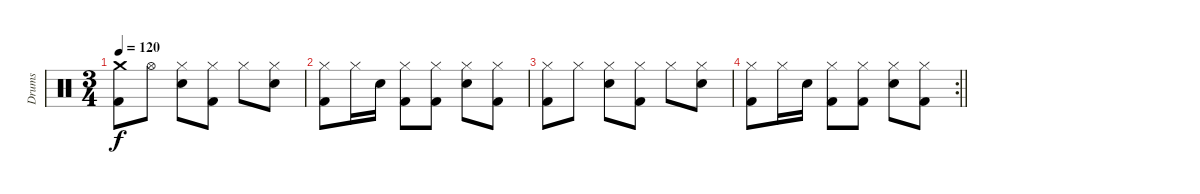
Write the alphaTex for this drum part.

\track ("Drums" "Drums") {instrument percussion}
\staff {score}
\articulation defaults
\ts (3 4)
\tempo 120
\clef neutral
\ks c
("Kick (hit) 2" "Crash medium (hit)").8{dy f} "Hi-Hat (open)".8 ("Electric Snare (hit)" "Hi-Hat (closed)").8 ("Kick (hit) 2" "Hi-Hat (closed)").8 "Hi-Hat (closed)".8 ("Electric Snare (hit)" "Hi-Hat (closed)").8 |
("Kick (hit) 2" "Hi-Hat (closed)").8 "Hi-Hat (closed)".16 "Electric Snare (hit)".16 ("Kick (hit) 2" "Hi-Hat (closed)").8 ("Kick (hit) 2" "Hi-Hat (closed)").8 ("Electric Snare (hit)" "Hi-Hat (closed)").8 ("Kick (hit) 2" "Hi-Hat (closed)").8 |
("Kick (hit) 2" "Hi-Hat (closed)").8 "Hi-Hat (closed)".8 ("Electric Snare (hit)" "Hi-Hat (closed)").8 ("Kick (hit) 2" "Hi-Hat (closed)").8 "Hi-Hat (closed)".8 ("Electric Snare (hit)" "Hi-Hat (closed)").8 |
\rc 2
\barLineRight lightlight
("Kick (hit) 2" "Hi-Hat (closed)").8 "Hi-Hat (closed)".16 "Electric Snare (hit)".16 ("Kick (hit) 2" "Hi-Hat (closed)").8 ("Kick (hit) 2" "Hi-Hat (closed)").8 ("Electric Snare (hit)" "Hi-Hat (closed)").8 ("Kick (hit) 2" "Hi-Hat (closed)").8
